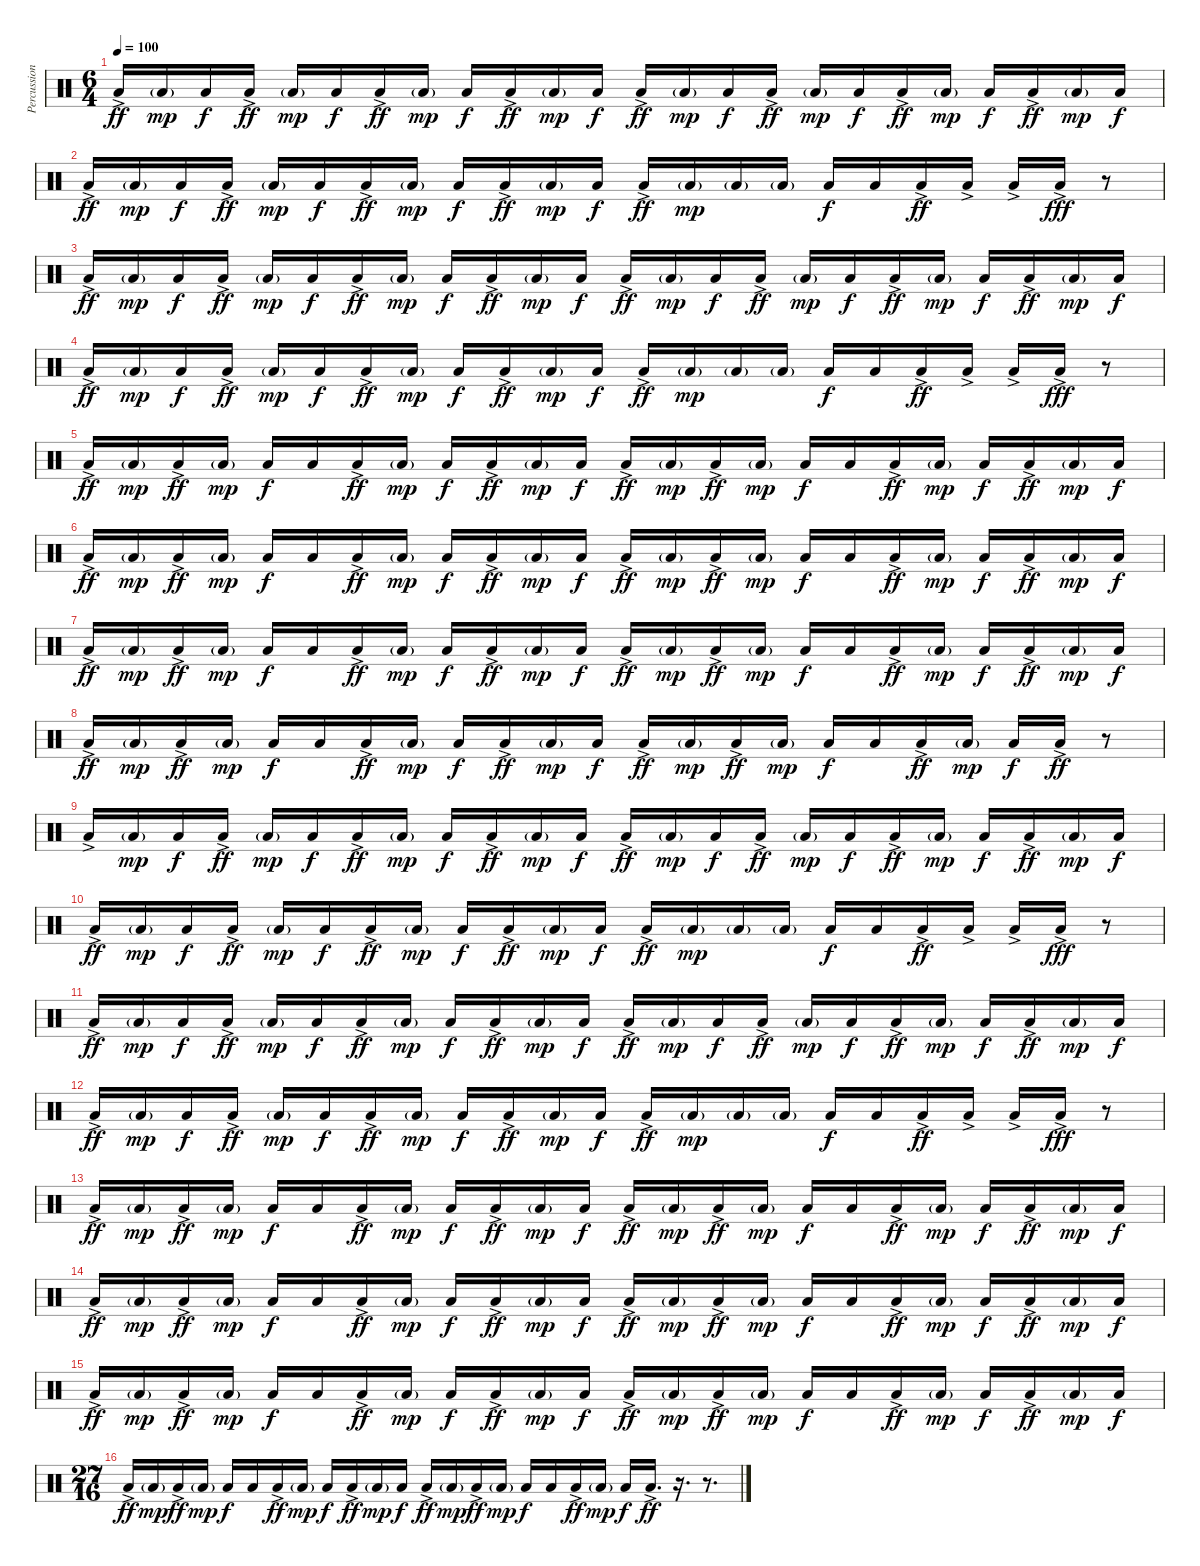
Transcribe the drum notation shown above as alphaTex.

\track ("Percussions" "Percussion") {instrument percussion}
\staff {score}
\articulation defaults
\ts (6 4)
\tempo 100
\clef neutral
\ks c "Low Floor Tom (hit)"{ac}.16{dy ff} "Low Floor Tom (hit)"{g}.16{dy mp} "Low Floor Tom (hit)".16{dy f} "Low Floor Tom (hit)"{ac}.16{dy ff} "Low Floor Tom (hit)"{g}.16{dy mp} "Low Floor Tom (hit)".16{dy f} "Low Floor Tom (hit)"{ac}.16{dy ff} "Low Floor Tom (hit)"{g}.16{dy mp} "Low Floor Tom (hit)".16{dy f} "Low Floor Tom (hit)"{ac}.16{dy ff} "Low Floor Tom (hit)"{g}.16{dy mp} "Low Floor Tom (hit)".16{dy f} "Low Floor Tom (hit)"{ac}.16{dy ff} "Low Floor Tom (hit)"{g}.16{dy mp} "Low Floor Tom (hit)".16{dy f} "Low Floor Tom (hit)"{ac}.16{dy ff} "Low Floor Tom (hit)"{g}.16{dy mp} "Low Floor Tom (hit)".16{dy f} "Low Floor Tom (hit)"{ac}.16{dy ff} "Low Floor Tom (hit)"{g}.16{dy mp} "Low Floor Tom (hit)".16{dy f} "Low Floor Tom (hit)"{ac}.16{dy ff} "Low Floor Tom (hit)"{g}.16{dy mp} "Low Floor Tom (hit)".16{dy f}
|
"Low Floor Tom (hit)"{ac}.16{dy ff} "Low Floor Tom (hit)"{g}.16{dy mp} "Low Floor Tom (hit)".16{dy f} "Low Floor Tom (hit)"{ac}.16{dy ff} "Low Floor Tom (hit)"{g}.16{dy mp} "Low Floor Tom (hit)".16{dy f} "Low Floor Tom (hit)"{ac}.16{dy ff} "Low Floor Tom (hit)"{g}.16{dy mp} "Low Floor Tom (hit)".16{dy f} "Low Floor Tom (hit)"{ac}.16{dy ff} "Low Floor Tom (hit)"{g}.16{dy mp} "Low Floor Tom (hit)".16{dy f} "Low Floor Tom (hit)"{ac}.16{dy ff} "Low Floor Tom (hit)"{g}.16{dy mp} "Low Floor Tom (hit)"{g}.16 "Low Floor Tom (hit)"{g}.16 "Low Floor Tom (hit)".16{dy f} "Low Floor Tom (hit)".16 "Low Floor Tom (hit)"{ac}.16{dy ff} "Low Floor Tom (hit)"{ac}.16 "Low Floor Tom (hit)"{ac}.16 "Low Floor Tom (hit)"{ac}.16{dy fff} r.8 |
"Low Floor Tom (hit)"{ac}.16{dy ff} "Low Floor Tom (hit)"{g}.16{dy mp} "Low Floor Tom (hit)".16{dy f} "Low Floor Tom (hit)"{ac}.16{dy ff} "Low Floor Tom (hit)"{g}.16{dy mp} "Low Floor Tom (hit)".16{dy f} "Low Floor Tom (hit)"{ac}.16{dy ff} "Low Floor Tom (hit)"{g}.16{dy mp} "Low Floor Tom (hit)".16{dy f} "Low Floor Tom (hit)"{ac}.16{dy ff} "Low Floor Tom (hit)"{g}.16{dy mp} "Low Floor Tom (hit)".16{dy f} "Low Floor Tom (hit)"{ac}.16{dy ff} "Low Floor Tom (hit)"{g}.16{dy mp} "Low Floor Tom (hit)".16{dy f} "Low Floor Tom (hit)"{ac}.16{dy ff} "Low Floor Tom (hit)"{g}.16{dy mp} "Low Floor Tom (hit)".16{dy f} "Low Floor Tom (hit)"{ac}.16{dy ff} "Low Floor Tom (hit)"{g}.16{dy mp} "Low Floor Tom (hit)".16{dy f} "Low Floor Tom (hit)"{ac}.16{dy ff} "Low Floor Tom (hit)"{g}.16{dy mp} "Low Floor Tom (hit)".16{dy f} |
"Low Floor Tom (hit)"{ac}.16{dy ff} "Low Floor Tom (hit)"{g}.16{dy mp} "Low Floor Tom (hit)".16{dy f} "Low Floor Tom (hit)"{ac}.16{dy ff} "Low Floor Tom (hit)"{g}.16{dy mp} "Low Floor Tom (hit)".16{dy f} "Low Floor Tom (hit)"{ac}.16{dy ff} "Low Floor Tom (hit)"{g}.16{dy mp} "Low Floor Tom (hit)".16{dy f} "Low Floor Tom (hit)"{ac}.16{dy ff} "Low Floor Tom (hit)"{g}.16{dy mp} "Low Floor Tom (hit)".16{dy f} "Low Floor Tom (hit)"{ac}.16{dy ff} "Low Floor Tom (hit)"{g}.16{dy mp} "Low Floor Tom (hit)"{g}.16 "Low Floor Tom (hit)"{g}.16 "Low Floor Tom (hit)".16{dy f} "Low Floor Tom (hit)".16 "Low Floor Tom (hit)"{ac}.16{dy ff} "Low Floor Tom (hit)"{ac}.16 "Low Floor Tom (hit)"{ac}.16 "Low Floor Tom (hit)"{ac}.16{dy fff} r.8 |
"Low Floor Tom (hit)"{ac}.16{dy ff} "Low Floor Tom (hit)"{g}.16{dy mp} "Low Floor Tom (hit)"{ac}.16{dy ff} "Low Floor Tom (hit)"{g}.16{dy mp} "Low Floor Tom (hit)".16{dy f} "Low Floor Tom (hit)".16 "Low Floor Tom (hit)"{ac}.16{dy ff} "Low Floor Tom (hit)"{g}.16{dy mp} "Low Floor Tom (hit)".16{dy f} "Low Floor Tom (hit)"{ac}.16{dy ff} "Low Floor Tom (hit)"{g}.16{dy mp} "Low Floor Tom (hit)".16{dy f} "Low Floor Tom (hit)"{ac}.16{dy ff} "Low Floor Tom (hit)"{g}.16{dy mp} "Low Floor Tom (hit)"{ac}.16{dy ff} "Low Floor Tom (hit)"{g}.16{dy mp} "Low Floor Tom (hit)".16{dy f} "Low Floor Tom (hit)".16 "Low Floor Tom (hit)"{ac}.16{dy ff} "Low Floor Tom (hit)"{g}.16{dy mp} "Low Floor Tom (hit)".16{dy f} "Low Floor Tom (hit)"{ac}.16{dy ff} "Low Floor Tom (hit)"{g}.16{dy mp} "Low Floor Tom (hit)".16{dy f} |
"Low Floor Tom (hit)"{ac}.16{dy ff} "Low Floor Tom (hit)"{g}.16{dy mp} "Low Floor Tom (hit)"{ac}.16{dy ff} "Low Floor Tom (hit)"{g}.16{dy mp} "Low Floor Tom (hit)".16{dy f} "Low Floor Tom (hit)".16 "Low Floor Tom (hit)"{ac}.16{dy ff} "Low Floor Tom (hit)"{g}.16{dy mp} "Low Floor Tom (hit)".16{dy f} "Low Floor Tom (hit)"{ac}.16{dy ff} "Low Floor Tom (hit)"{g}.16{dy mp} "Low Floor Tom (hit)".16{dy f} "Low Floor Tom (hit)"{ac}.16{dy ff} "Low Floor Tom (hit)"{g}.16{dy mp} "Low Floor Tom (hit)"{ac}.16{dy ff} "Low Floor Tom (hit)"{g}.16{dy mp} "Low Floor Tom (hit)".16{dy f} "Low Floor Tom (hit)".16 "Low Floor Tom (hit)"{ac}.16{dy ff} "Low Floor Tom (hit)"{g}.16{dy mp} "Low Floor Tom (hit)".16{dy f} "Low Floor Tom (hit)"{ac}.16{dy ff} "Low Floor Tom (hit)"{g}.16{dy mp} "Low Floor Tom (hit)".16{dy f} |
"Low Floor Tom (hit)"{ac}.16{dy ff} "Low Floor Tom (hit)"{g}.16{dy mp} "Low Floor Tom (hit)"{ac}.16{dy ff} "Low Floor Tom (hit)"{g}.16{dy mp} "Low Floor Tom (hit)".16{dy f} "Low Floor Tom (hit)".16 "Low Floor Tom (hit)"{ac}.16{dy ff} "Low Floor Tom (hit)"{g}.16{dy mp} "Low Floor Tom (hit)".16{dy f} "Low Floor Tom (hit)"{ac}.16{dy ff} "Low Floor Tom (hit)"{g}.16{dy mp} "Low Floor Tom (hit)".16{dy f} "Low Floor Tom (hit)"{ac}.16{dy ff} "Low Floor Tom (hit)"{g}.16{dy mp} "Low Floor Tom (hit)"{ac}.16{dy ff} "Low Floor Tom (hit)"{g}.16{dy mp} "Low Floor Tom (hit)".16{dy f} "Low Floor Tom (hit)".16 "Low Floor Tom (hit)"{ac}.16{dy ff} "Low Floor Tom (hit)"{g}.16{dy mp} "Low Floor Tom (hit)".16{dy f} "Low Floor Tom (hit)"{ac}.16{dy ff} "Low Floor Tom (hit)"{g}.16{dy mp} "Low Floor Tom (hit)".16{dy f} |
"Low Floor Tom (hit)"{ac}.16{dy ff} "Low Floor Tom (hit)"{g}.16{dy mp} "Low Floor Tom (hit)"{ac}.16{dy ff} "Low Floor Tom (hit)"{g}.16{dy mp} "Low Floor Tom (hit)".16{dy f} "Low Floor Tom (hit)".16 "Low Floor Tom (hit)"{ac}.16{dy ff} "Low Floor Tom (hit)"{g}.16{dy mp} "Low Floor Tom (hit)".16{dy f} "Low Floor Tom (hit)"{ac}.16{dy ff} "Low Floor Tom (hit)"{g}.16{dy mp} "Low Floor Tom (hit)".16{dy f} "Low Floor Tom (hit)"{ac}.16{dy ff} "Low Floor Tom (hit)"{g}.16{dy mp} "Low Floor Tom (hit)"{ac}.16{dy ff} "Low Floor Tom (hit)"{g}.16{dy mp} "Low Floor Tom (hit)".16{dy f} "Low Floor Tom (hit)".16 "Low Floor Tom (hit)"{ac}.16{dy ff} "Low Floor Tom (hit)"{g}.16{dy mp} "Low Floor Tom (hit)".16{dy f} "Low Floor Tom (hit)"{ac}.16{dy ff} r.8 |
"Low Floor Tom (hit)"{ac}.16 "Low Floor Tom (hit)"{g}.16{dy mp} "Low Floor Tom (hit)".16{dy f} "Low Floor Tom (hit)"{ac}.16{dy ff} "Low Floor Tom (hit)"{g}.16{dy mp} "Low Floor Tom (hit)".16{dy f} "Low Floor Tom (hit)"{ac}.16{dy ff} "Low Floor Tom (hit)"{g}.16{dy mp} "Low Floor Tom (hit)".16{dy f} "Low Floor Tom (hit)"{ac}.16{dy ff} "Low Floor Tom (hit)"{g}.16{dy mp} "Low Floor Tom (hit)".16{dy f} "Low Floor Tom (hit)"{ac}.16{dy ff} "Low Floor Tom (hit)"{g}.16{dy mp} "Low Floor Tom (hit)".16{dy f} "Low Floor Tom (hit)"{ac}.16{dy ff} "Low Floor Tom (hit)"{g}.16{dy mp} "Low Floor Tom (hit)".16{dy f} "Low Floor Tom (hit)"{ac}.16{dy ff} "Low Floor Tom (hit)"{g}.16{dy mp} "Low Floor Tom (hit)".16{dy f} "Low Floor Tom (hit)"{ac}.16{dy ff} "Low Floor Tom (hit)"{g}.16{dy mp} "Low Floor Tom (hit)".16{dy f} |
"Low Floor Tom (hit)"{ac}.16{dy ff} "Low Floor Tom (hit)"{g}.16{dy mp} "Low Floor Tom (hit)".16{dy f} "Low Floor Tom (hit)"{ac}.16{dy ff} "Low Floor Tom (hit)"{g}.16{dy mp} "Low Floor Tom (hit)".16{dy f} "Low Floor Tom (hit)"{ac}.16{dy ff} "Low Floor Tom (hit)"{g}.16{dy mp} "Low Floor Tom (hit)".16{dy f} "Low Floor Tom (hit)"{ac}.16{dy ff} "Low Floor Tom (hit)"{g}.16{dy mp} "Low Floor Tom (hit)".16{dy f} "Low Floor Tom (hit)"{ac}.16{dy ff} "Low Floor Tom (hit)"{g}.16{dy mp} "Low Floor Tom (hit)"{g}.16 "Low Floor Tom (hit)"{g}.16 "Low Floor Tom (hit)".16{dy f} "Low Floor Tom (hit)".16 "Low Floor Tom (hit)"{ac}.16{dy ff} "Low Floor Tom (hit)"{ac}.16 "Low Floor Tom (hit)"{ac}.16 "Low Floor Tom (hit)"{ac}.16{dy fff} r.8 |
"Low Floor Tom (hit)"{ac}.16{dy ff} "Low Floor Tom (hit)"{g}.16{dy mp} "Low Floor Tom (hit)".16{dy f} "Low Floor Tom (hit)"{ac}.16{dy ff} "Low Floor Tom (hit)"{g}.16{dy mp} "Low Floor Tom (hit)".16{dy f} "Low Floor Tom (hit)"{ac}.16{dy ff} "Low Floor Tom (hit)"{g}.16{dy mp} "Low Floor Tom (hit)".16{dy f} "Low Floor Tom (hit)"{ac}.16{dy ff} "Low Floor Tom (hit)"{g}.16{dy mp} "Low Floor Tom (hit)".16{dy f} "Low Floor Tom (hit)"{ac}.16{dy ff} "Low Floor Tom (hit)"{g}.16{dy mp} "Low Floor Tom (hit)".16{dy f} "Low Floor Tom (hit)"{ac}.16{dy ff} "Low Floor Tom (hit)"{g}.16{dy mp} "Low Floor Tom (hit)".16{dy f} "Low Floor Tom (hit)"{ac}.16{dy ff} "Low Floor Tom (hit)"{g}.16{dy mp} "Low Floor Tom (hit)".16{dy f} "Low Floor Tom (hit)"{ac}.16{dy ff} "Low Floor Tom (hit)"{g}.16{dy mp} "Low Floor Tom (hit)".16{dy f} |
"Low Floor Tom (hit)"{ac}.16{dy ff} "Low Floor Tom (hit)"{g}.16{dy mp} "Low Floor Tom (hit)".16{dy f} "Low Floor Tom (hit)"{ac}.16{dy ff} "Low Floor Tom (hit)"{g}.16{dy mp} "Low Floor Tom (hit)".16{dy f} "Low Floor Tom (hit)"{ac}.16{dy ff} "Low Floor Tom (hit)"{g}.16{dy mp} "Low Floor Tom (hit)".16{dy f} "Low Floor Tom (hit)"{ac}.16{dy ff} "Low Floor Tom (hit)"{g}.16{dy mp} "Low Floor Tom (hit)".16{dy f} "Low Floor Tom (hit)"{ac}.16{dy ff} "Low Floor Tom (hit)"{g}.16{dy mp} "Low Floor Tom (hit)"{g}.16 "Low Floor Tom (hit)"{g}.16 "Low Floor Tom (hit)".16{dy f} "Low Floor Tom (hit)".16 "Low Floor Tom (hit)"{ac}.16{dy ff} "Low Floor Tom (hit)"{ac}.16 "Low Floor Tom (hit)"{ac}.16 "Low Floor Tom (hit)"{ac}.16{dy fff} r.8 |
"Low Floor Tom (hit)"{ac}.16{dy ff} "Low Floor Tom (hit)"{g}.16{dy mp} "Low Floor Tom (hit)"{ac}.16{dy ff} "Low Floor Tom (hit)"{g}.16{dy mp} "Low Floor Tom (hit)".16{dy f} "Low Floor Tom (hit)".16 "Low Floor Tom (hit)"{ac}.16{dy ff} "Low Floor Tom (hit)"{g}.16{dy mp} "Low Floor Tom (hit)".16{dy f} "Low Floor Tom (hit)"{ac}.16{dy ff} "Low Floor Tom (hit)"{g}.16{dy mp} "Low Floor Tom (hit)".16{dy f} "Low Floor Tom (hit)"{ac}.16{dy ff} "Low Floor Tom (hit)"{g}.16{dy mp} "Low Floor Tom (hit)"{ac}.16{dy ff} "Low Floor Tom (hit)"{g}.16{dy mp} "Low Floor Tom (hit)".16{dy f} "Low Floor Tom (hit)".16 "Low Floor Tom (hit)"{ac}.16{dy ff} "Low Floor Tom (hit)"{g}.16{dy mp} "Low Floor Tom (hit)".16{dy f} "Low Floor Tom (hit)"{ac}.16{dy ff} "Low Floor Tom (hit)"{g}.16{dy mp} "Low Floor Tom (hit)".16{dy f} |
"Low Floor Tom (hit)"{ac}.16{dy ff} "Low Floor Tom (hit)"{g}.16{dy mp} "Low Floor Tom (hit)"{ac}.16{dy ff} "Low Floor Tom (hit)"{g}.16{dy mp} "Low Floor Tom (hit)".16{dy f} "Low Floor Tom (hit)".16 "Low Floor Tom (hit)"{ac}.16{dy ff} "Low Floor Tom (hit)"{g}.16{dy mp} "Low Floor Tom (hit)".16{dy f} "Low Floor Tom (hit)"{ac}.16{dy ff} "Low Floor Tom (hit)"{g}.16{dy mp} "Low Floor Tom (hit)".16{dy f} "Low Floor Tom (hit)"{ac}.16{dy ff} "Low Floor Tom (hit)"{g}.16{dy mp} "Low Floor Tom (hit)"{ac}.16{dy ff} "Low Floor Tom (hit)"{g}.16{dy mp} "Low Floor Tom (hit)".16{dy f} "Low Floor Tom (hit)".16 "Low Floor Tom (hit)"{ac}.16{dy ff} "Low Floor Tom (hit)"{g}.16{dy mp} "Low Floor Tom (hit)".16{dy f} "Low Floor Tom (hit)"{ac}.16{dy ff} "Low Floor Tom (hit)"{g}.16{dy mp} "Low Floor Tom (hit)".16{dy f} |
"Low Floor Tom (hit)"{ac}.16{dy ff} "Low Floor Tom (hit)"{g}.16{dy mp} "Low Floor Tom (hit)"{ac}.16{dy ff} "Low Floor Tom (hit)"{g}.16{dy mp} "Low Floor Tom (hit)".16{dy f} "Low Floor Tom (hit)".16 "Low Floor Tom (hit)"{ac}.16{dy ff} "Low Floor Tom (hit)"{g}.16{dy mp} "Low Floor Tom (hit)".16{dy f} "Low Floor Tom (hit)"{ac}.16{dy ff} "Low Floor Tom (hit)"{g}.16{dy mp} "Low Floor Tom (hit)".16{dy f} "Low Floor Tom (hit)"{ac}.16{dy ff} "Low Floor Tom (hit)"{g}.16{dy mp} "Low Floor Tom (hit)"{ac}.16{dy ff} "Low Floor Tom (hit)"{g}.16{dy mp} "Low Floor Tom (hit)".16{dy f} "Low Floor Tom (hit)".16 "Low Floor Tom (hit)"{ac}.16{dy ff} "Low Floor Tom (hit)"{g}.16{dy mp} "Low Floor Tom (hit)".16{dy f} "Low Floor Tom (hit)"{ac}.16{dy ff} "Low Floor Tom (hit)"{g}.16{dy mp} "Low Floor Tom (hit)".16{dy f} |
\ts (27 16)
"Low Floor Tom (hit)"{ac}.16{dy ff} "Low Floor Tom (hit)"{g}.16{dy mp} "Low Floor Tom (hit)"{ac}.16{dy ff} "Low Floor Tom (hit)"{g}.16{dy mp} "Low Floor Tom (hit)".16{dy f} "Low Floor Tom (hit)".16 "Low Floor Tom (hit)"{ac}.16{dy ff} "Low Floor Tom (hit)"{g}.16{dy mp} "Low Floor Tom (hit)".16{dy f} "Low Floor Tom (hit)"{ac}.16{dy ff} "Low Floor Tom (hit)"{g}.16{dy mp} "Low Floor Tom (hit)".16{dy f} "Low Floor Tom (hit)"{ac}.16{dy ff} "Low Floor Tom (hit)"{g}.16{dy mp} "Low Floor Tom (hit)"{ac}.16{dy ff} "Low Floor Tom (hit)"{g}.16{dy mp} "Low Floor Tom (hit)".16{dy f} "Low Floor Tom (hit)".16 "Low Floor Tom (hit)"{ac}.16{dy ff} "Low Floor Tom (hit)"{g}.16{dy mp} "Low Floor Tom (hit)".16{dy f} "Low Floor Tom (hit)"{ac}.16{d dy ff} r.16{d} r.8{d}
